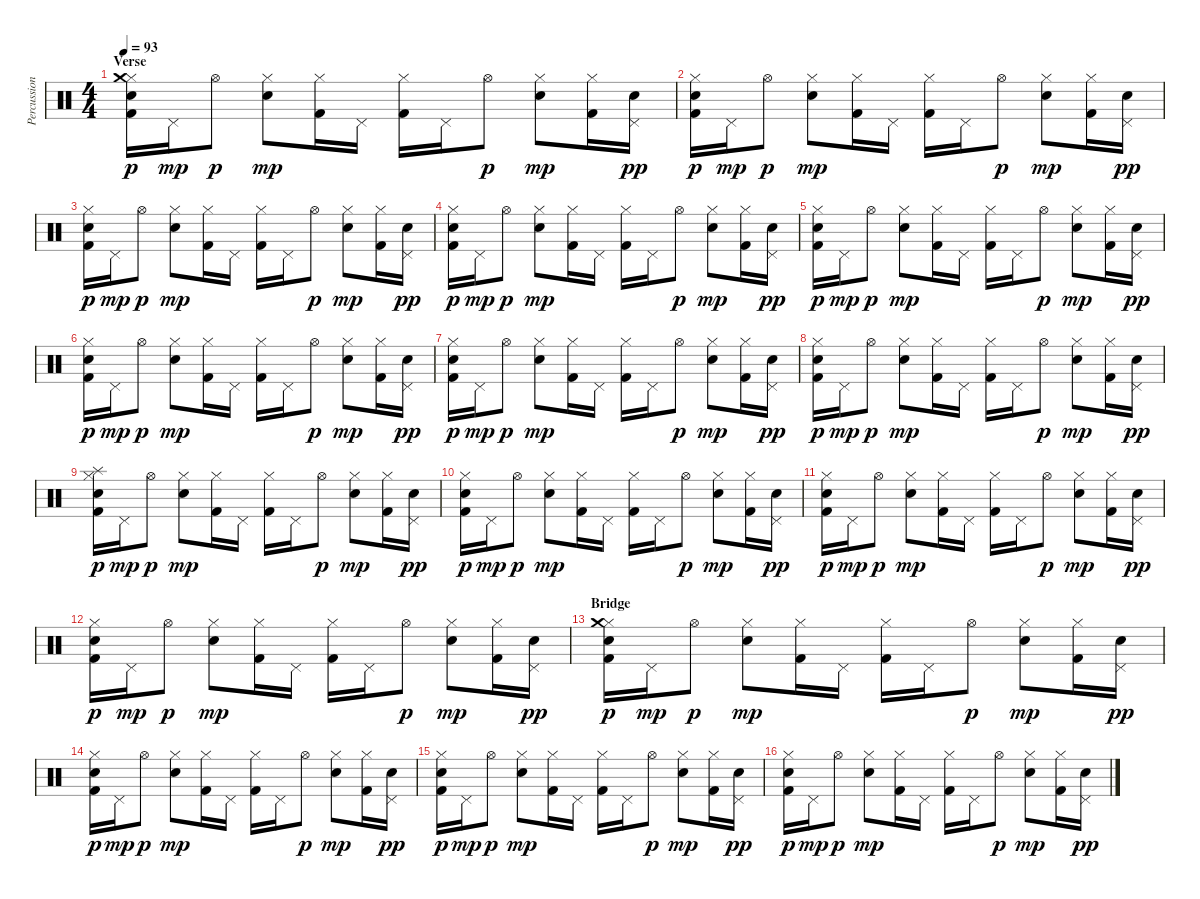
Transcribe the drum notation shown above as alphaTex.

\track ("Percussions" "Percussion") {instrument percussion}
\staff {score}
\articulation defaults
\ts (4 4)
\section ("" "Verse")
\tempo 93
\clef neutral
\ks c
("Hi-Hat (closed)" "Crash medium (hit)" "Hand Clap (hit)" "Kick (hit) 2").16{dy p} "Pedal Hi-Hat (hit)".16{dy mp} "Hi-Hat (open)".8{dy p} ("Hi-Hat (closed)" "Electric Snare (hit)").8{dy mp} ("Hi-Hat (closed)" "Kick (hit) 2").16 "Pedal Hi-Hat (hit)".16 ("Hi-Hat (closed)" "Kick (hit) 2").16 "Pedal Hi-Hat (hit)".16 "Hi-Hat (open)".8{dy p} ("Hi-Hat (closed)" "Electric Snare (hit)").8{dy mp} ("Hi-Hat (closed)" "Kick (hit) 2").16 ("Pedal Hi-Hat (hit)" "Hand Clap (hit)").16{dy pp} |
("Hi-Hat (closed)" "Hand Clap (hit)" "Kick (hit) 2").16{dy p} "Pedal Hi-Hat (hit)".16{dy mp} "Hi-Hat (open)".8{dy p} ("Hi-Hat (closed)" "Electric Snare (hit)").8{dy mp} ("Hi-Hat (closed)" "Kick (hit) 2").16 "Pedal Hi-Hat (hit)".16 ("Hi-Hat (closed)" "Kick (hit) 2").16 "Pedal Hi-Hat (hit)".16 "Hi-Hat (open)".8{dy p} ("Hi-Hat (closed)" "Electric Snare (hit)").8{dy mp} ("Hi-Hat (closed)" "Kick (hit) 2").16 ("Pedal Hi-Hat (hit)" "Hand Clap (hit)").16{dy pp} |
("Hi-Hat (closed)" "Hand Clap (hit)" "Kick (hit) 2").16{dy p} "Pedal Hi-Hat (hit)".16{dy mp} "Hi-Hat (open)".8{dy p} ("Hi-Hat (closed)" "Electric Snare (hit)").8{dy mp} ("Hi-Hat (closed)" "Kick (hit) 2").16 "Pedal Hi-Hat (hit)".16 ("Hi-Hat (closed)" "Kick (hit) 2").16 "Pedal Hi-Hat (hit)".16 "Hi-Hat (open)".8{dy p} ("Hi-Hat (closed)" "Electric Snare (hit)").8{dy mp} ("Hi-Hat (closed)" "Kick (hit) 2").16 ("Pedal Hi-Hat (hit)" "Hand Clap (hit)").16{dy pp} |
("Hi-Hat (closed)" "Hand Clap (hit)" "Kick (hit) 2").16{dy p} "Pedal Hi-Hat (hit)".16{dy mp} "Hi-Hat (open)".8{dy p} ("Hi-Hat (closed)" "Electric Snare (hit)").8{dy mp} ("Hi-Hat (closed)" "Kick (hit) 2").16 "Pedal Hi-Hat (hit)".16 ("Hi-Hat (closed)" "Kick (hit) 2").16 "Pedal Hi-Hat (hit)".16 "Hi-Hat (open)".8{dy p} ("Hi-Hat (closed)" "Electric Snare (hit)").8{dy mp} ("Hi-Hat (closed)" "Kick (hit) 2").16 ("Pedal Hi-Hat (hit)" "Hand Clap (hit)").16{dy pp} |
("Hi-Hat (closed)" "Hand Clap (hit)" "Kick (hit) 2").16{dy p} "Pedal Hi-Hat (hit)".16{dy mp} "Hi-Hat (open)".8{dy p} ("Hi-Hat (closed)" "Electric Snare (hit)").8{dy mp} ("Hi-Hat (closed)" "Kick (hit) 2").16 "Pedal Hi-Hat (hit)".16 ("Hi-Hat (closed)" "Kick (hit) 2").16 "Pedal Hi-Hat (hit)".16 "Hi-Hat (open)".8{dy p} ("Hi-Hat (closed)" "Electric Snare (hit)").8{dy mp} ("Hi-Hat (closed)" "Kick (hit) 2").16 ("Pedal Hi-Hat (hit)" "Hand Clap (hit)").16{dy pp} |
("Hi-Hat (closed)" "Hand Clap (hit)" "Kick (hit) 2").16{dy p} "Pedal Hi-Hat (hit)".16{dy mp} "Hi-Hat (open)".8{dy p} ("Hi-Hat (closed)" "Electric Snare (hit)").8{dy mp} ("Hi-Hat (closed)" "Kick (hit) 2").16 "Pedal Hi-Hat (hit)".16 ("Hi-Hat (closed)" "Kick (hit) 2").16 "Pedal Hi-Hat (hit)".16 "Hi-Hat (open)".8{dy p} ("Hi-Hat (closed)" "Electric Snare (hit)").8{dy mp} ("Hi-Hat (closed)" "Kick (hit) 2").16 ("Pedal Hi-Hat (hit)" "Hand Clap (hit)").16{dy pp} |
("Hi-Hat (closed)" "Hand Clap (hit)" "Kick (hit) 2").16{dy p} "Pedal Hi-Hat (hit)".16{dy mp} "Hi-Hat (open)".8{dy p} ("Hi-Hat (closed)" "Electric Snare (hit)").8{dy mp} ("Hi-Hat (closed)" "Kick (hit) 2").16 "Pedal Hi-Hat (hit)".16 ("Hi-Hat (closed)" "Kick (hit) 2").16 "Pedal Hi-Hat (hit)".16 "Hi-Hat (open)".8{dy p} ("Hi-Hat (closed)" "Electric Snare (hit)").8{dy mp} ("Hi-Hat (closed)" "Kick (hit) 2").16 ("Pedal Hi-Hat (hit)" "Hand Clap (hit)").16{dy pp} |
("Hi-Hat (closed)" "Hand Clap (hit)" "Kick (hit) 2").16{dy p} "Pedal Hi-Hat (hit)".16{dy mp} "Hi-Hat (open)".8{dy p} ("Hi-Hat (closed)" "Electric Snare (hit)").8{dy mp} ("Hi-Hat (closed)" "Kick (hit) 2").16 "Pedal Hi-Hat (hit)".16 ("Hi-Hat (closed)" "Kick (hit) 2").16 "Pedal Hi-Hat (hit)".16 "Hi-Hat (open)".8{dy p} ("Hi-Hat (closed)" "Electric Snare (hit)").8{dy mp} ("Hi-Hat (closed)" "Kick (hit) 2").16 ("Pedal Hi-Hat (hit)" "Hand Clap (hit)").16{dy pp} |
("Hi-Hat (closed)" "Splash (hit)" "Hand Clap (hit)" "Kick (hit) 2").16{dy p} "Pedal Hi-Hat (hit)".16{dy mp} "Hi-Hat (open)".8{dy p} ("Hi-Hat (closed)" "Electric Snare (hit)").8{dy mp} ("Hi-Hat (closed)" "Kick (hit) 2").16 "Pedal Hi-Hat (hit)".16 ("Hi-Hat (closed)" "Kick (hit) 2").16 "Pedal Hi-Hat (hit)".16 "Hi-Hat (open)".8{dy p} ("Hi-Hat (closed)" "Electric Snare (hit)").8{dy mp} ("Hi-Hat (closed)" "Kick (hit) 2").16 ("Pedal Hi-Hat (hit)" "Hand Clap (hit)").16{dy pp} |
("Hi-Hat (closed)" "Hand Clap (hit)" "Kick (hit) 2").16{dy p} "Pedal Hi-Hat (hit)".16{dy mp} "Hi-Hat (open)".8{dy p} ("Hi-Hat (closed)" "Electric Snare (hit)").8{dy mp} ("Hi-Hat (closed)" "Kick (hit) 2").16 "Pedal Hi-Hat (hit)".16 ("Hi-Hat (closed)" "Kick (hit) 2").16 "Pedal Hi-Hat (hit)".16 "Hi-Hat (open)".8{dy p} ("Hi-Hat (closed)" "Electric Snare (hit)").8{dy mp} ("Hi-Hat (closed)" "Kick (hit) 2").16 ("Pedal Hi-Hat (hit)" "Hand Clap (hit)").16{dy pp} |
("Hi-Hat (closed)" "Hand Clap (hit)" "Kick (hit) 2").16{dy p} "Pedal Hi-Hat (hit)".16{dy mp} "Hi-Hat (open)".8{dy p} ("Hi-Hat (closed)" "Electric Snare (hit)").8{dy mp} ("Hi-Hat (closed)" "Kick (hit) 2").16 "Pedal Hi-Hat (hit)".16 ("Hi-Hat (closed)" "Kick (hit) 2").16 "Pedal Hi-Hat (hit)".16 "Hi-Hat (open)".8{dy p} ("Hi-Hat (closed)" "Electric Snare (hit)").8{dy mp} ("Hi-Hat (closed)" "Kick (hit) 2").16 ("Pedal Hi-Hat (hit)" "Hand Clap (hit)").16{dy pp} |
("Hi-Hat (closed)" "Hand Clap (hit)" "Kick (hit) 2").16{dy p} "Pedal Hi-Hat (hit)".16{dy mp} "Hi-Hat (open)".8{dy p} ("Hi-Hat (closed)" "Electric Snare (hit)").8{dy mp} ("Hi-Hat (closed)" "Kick (hit) 2").16 "Pedal Hi-Hat (hit)".16 ("Hi-Hat (closed)" "Kick (hit) 2").16 "Pedal Hi-Hat (hit)".16 "Hi-Hat (open)".8{dy p} ("Hi-Hat (closed)" "Electric Snare (hit)").8{dy mp} ("Hi-Hat (closed)" "Kick (hit) 2").16 ("Pedal Hi-Hat (hit)" "Hand Clap (hit)").16{dy pp} |
\section ("" "Bridge")
("Hi-Hat (closed)" "Crash medium (hit)" "Hand Clap (hit)" "Kick (hit) 2").16{dy p} "Pedal Hi-Hat (hit)".16{dy mp} "Hi-Hat (open)".8{dy p} ("Hi-Hat (closed)" "Electric Snare (hit)").8{dy mp} ("Hi-Hat (closed)" "Kick (hit) 2").16 "Pedal Hi-Hat (hit)".16 ("Hi-Hat (closed)" "Kick (hit) 2").16 "Pedal Hi-Hat (hit)".16 "Hi-Hat (open)".8{dy p} ("Hi-Hat (closed)" "Electric Snare (hit)").8{dy mp} ("Hi-Hat (closed)" "Kick (hit) 2").16 ("Pedal Hi-Hat (hit)" "Hand Clap (hit)").16{dy pp} |
("Hi-Hat (closed)" "Hand Clap (hit)" "Kick (hit) 2").16{dy p} "Pedal Hi-Hat (hit)".16{dy mp} "Hi-Hat (open)".8{dy p} ("Hi-Hat (closed)" "Electric Snare (hit)").8{dy mp} ("Hi-Hat (closed)" "Kick (hit) 2").16 "Pedal Hi-Hat (hit)".16 ("Hi-Hat (closed)" "Kick (hit) 2").16 "Pedal Hi-Hat (hit)".16 "Hi-Hat (open)".8{dy p} ("Hi-Hat (closed)" "Electric Snare (hit)").8{dy mp} ("Hi-Hat (closed)" "Kick (hit) 2").16 ("Pedal Hi-Hat (hit)" "Hand Clap (hit)").16{dy pp} |
("Hi-Hat (closed)" "Hand Clap (hit)" "Kick (hit) 2").16{dy p} "Pedal Hi-Hat (hit)".16{dy mp} "Hi-Hat (open)".8{dy p} ("Hi-Hat (closed)" "Electric Snare (hit)").8{dy mp} ("Hi-Hat (closed)" "Kick (hit) 2").16 "Pedal Hi-Hat (hit)".16 ("Hi-Hat (closed)" "Kick (hit) 2").16 "Pedal Hi-Hat (hit)".16 "Hi-Hat (open)".8{dy p} ("Hi-Hat (closed)" "Electric Snare (hit)").8{dy mp} ("Hi-Hat (closed)" "Kick (hit) 2").16 ("Pedal Hi-Hat (hit)" "Hand Clap (hit)").16{dy pp} |
("Hi-Hat (closed)" "Hand Clap (hit)" "Kick (hit) 2").16{dy p} "Pedal Hi-Hat (hit)".16{dy mp} "Hi-Hat (open)".8{dy p} ("Hi-Hat (closed)" "Electric Snare (hit)").8{dy mp} ("Hi-Hat (closed)" "Kick (hit) 2").16 "Pedal Hi-Hat (hit)".16 ("Hi-Hat (closed)" "Kick (hit) 2").16 "Pedal Hi-Hat (hit)".16 "Hi-Hat (open)".8{dy p} ("Hi-Hat (closed)" "Electric Snare (hit)").8{dy mp} ("Hi-Hat (closed)" "Kick (hit) 2").16 ("Pedal Hi-Hat (hit)" "Hand Clap (hit)").16{dy pp}
